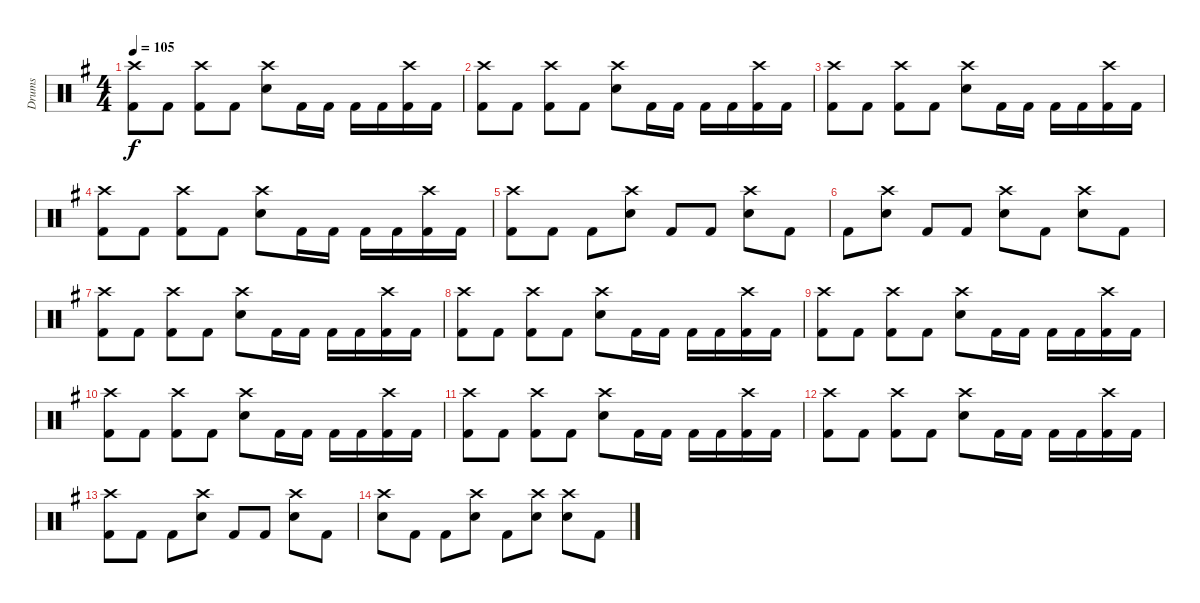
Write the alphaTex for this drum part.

\track ("Drums" "Drums") {instrument percussion}
\staff {score}
\articulation defaults
\ts (4 4)
\tempo 105
\clef neutral
\ks eminor
("Crash high (hit)" "Kick (hit) 2").8{dy f} "Kick (hit) 2".8 ("Crash high (hit)" "Kick (hit) 2").8 "Kick (hit) 2".8 ("Crash high (hit)" "Electric Snare (hit)").8 "Kick (hit) 2".16 "Kick (hit) 2".16 "Kick (hit) 2".16 "Kick (hit) 2".16 ("Crash high (hit)" "Kick (hit) 2").16 "Kick (hit) 2".16 |
("Crash high (hit)" "Kick (hit) 2").8 "Kick (hit) 2".8 ("Crash high (hit)" "Kick (hit) 2").8 "Kick (hit) 2".8 ("Crash high (hit)" "Electric Snare (hit)").8 "Kick (hit) 2".16 "Kick (hit) 2".16 "Kick (hit) 2".16 "Kick (hit) 2".16 ("Crash high (hit)" "Kick (hit) 2").16 "Kick (hit) 2".16 |
("Crash high (hit)" "Kick (hit) 2").8{volume 4} "Kick (hit) 2".8 ("Crash high (hit)" "Kick (hit) 2").8 "Kick (hit) 2".8 ("Crash high (hit)" "Electric Snare (hit)").8 "Kick (hit) 2".16 "Kick (hit) 2".16 "Kick (hit) 2".16 "Kick (hit) 2".16 ("Crash high (hit)" "Kick (hit) 2").16 "Kick (hit) 2".16 |
("Crash high (hit)" "Kick (hit) 2").8 "Kick (hit) 2".8 ("Crash high (hit)" "Kick (hit) 2").8 "Kick (hit) 2".8 ("Crash high (hit)" "Electric Snare (hit)").8 "Kick (hit) 2".16 "Kick (hit) 2".16 "Kick (hit) 2".16 "Kick (hit) 2".16 ("Crash high (hit)" "Kick (hit) 2").16 "Kick (hit) 2".16 |
("Crash high (hit)" "Kick (hit) 2").8 "Kick (hit) 2".8 "Kick (hit) 2".8 ("Crash high (hit)" "Electric Snare (hit)").8 "Kick (hit) 2".8 "Kick (hit) 2".8 ("Crash high (hit)" "Electric Snare (hit)").8 "Kick (hit) 2".8 |
"Kick (hit) 2".8 ("Crash high (hit)" "Electric Snare (hit)").8 "Kick (hit) 2".8 "Kick (hit) 2".8 ("Crash high (hit)" "Electric Snare (hit)").8 "Kick (hit) 2".8 ("Crash high (hit)" "Electric Snare (hit)").8 "Kick (hit) 2".8 |
("Crash high (hit)" "Kick (hit) 2").8{volume 2} "Kick (hit) 2".8 ("Crash high (hit)" "Kick (hit) 2").8 "Kick (hit) 2".8 ("Crash high (hit)" "Electric Snare (hit)").8 "Kick (hit) 2".16 "Kick (hit) 2".16 "Kick (hit) 2".16 "Kick (hit) 2".16 ("Crash high (hit)" "Kick (hit) 2").16 "Kick (hit) 2".16 |
("Crash high (hit)" "Kick (hit) 2").8 "Kick (hit) 2".8 ("Crash high (hit)" "Kick (hit) 2").8 "Kick (hit) 2".8 ("Crash high (hit)" "Electric Snare (hit)").8 "Kick (hit) 2".16 "Kick (hit) 2".16 "Kick (hit) 2".16 "Kick (hit) 2".16 ("Crash high (hit)" "Kick (hit) 2").16 "Kick (hit) 2".16 |
("Crash high (hit)" "Kick (hit) 2").8 "Kick (hit) 2".8 ("Crash high (hit)" "Kick (hit) 2").8 "Kick (hit) 2".8 ("Crash high (hit)" "Electric Snare (hit)").8 "Kick (hit) 2".16 "Kick (hit) 2".16 "Kick (hit) 2".16 "Kick (hit) 2".16 ("Crash high (hit)" "Kick (hit) 2").16 "Kick (hit) 2".16 |
("Crash high (hit)" "Kick (hit) 2").8 "Kick (hit) 2".8 ("Crash high (hit)" "Kick (hit) 2").8 "Kick (hit) 2".8 ("Crash high (hit)" "Electric Snare (hit)").8 "Kick (hit) 2".16 "Kick (hit) 2".16 "Kick (hit) 2".16 "Kick (hit) 2".16 ("Crash high (hit)" "Kick (hit) 2").16 "Kick (hit) 2".16 |
("Crash high (hit)" "Kick (hit) 2").8{volume 0} "Kick (hit) 2".8 ("Crash high (hit)" "Kick (hit) 2").8 "Kick (hit) 2".8 ("Crash high (hit)" "Electric Snare (hit)").8 "Kick (hit) 2".16 "Kick (hit) 2".16 "Kick (hit) 2".16 "Kick (hit) 2".16 ("Crash high (hit)" "Kick (hit) 2").16 "Kick (hit) 2".16 |
("Crash high (hit)" "Kick (hit) 2").8 "Kick (hit) 2".8 ("Crash high (hit)" "Kick (hit) 2").8 "Kick (hit) 2".8 ("Crash high (hit)" "Electric Snare (hit)").8 "Kick (hit) 2".16 "Kick (hit) 2".16 "Kick (hit) 2".16 "Kick (hit) 2".16 ("Crash high (hit)" "Kick (hit) 2").16 "Kick (hit) 2".16 |
("Crash high (hit)" "Kick (hit) 2").8 "Kick (hit) 2".8 "Kick (hit) 2".8 ("Crash high (hit)" "Electric Snare (hit)").8 "Kick (hit) 2".8 "Kick (hit) 2".8 ("Crash high (hit)" "Electric Snare (hit)").8 "Kick (hit) 2".8 |
("Crash high (hit)" "Electric Snare (hit)").8 "Kick (hit) 2".8 "Kick (hit) 2".8 ("Crash high (hit)" "Electric Snare (hit)").8 "Kick (hit) 2".8 ("Crash high (hit)" "Electric Snare (hit)").8 ("Crash high (hit)" "Electric Snare (hit)").8 "Kick (hit) 2".8
